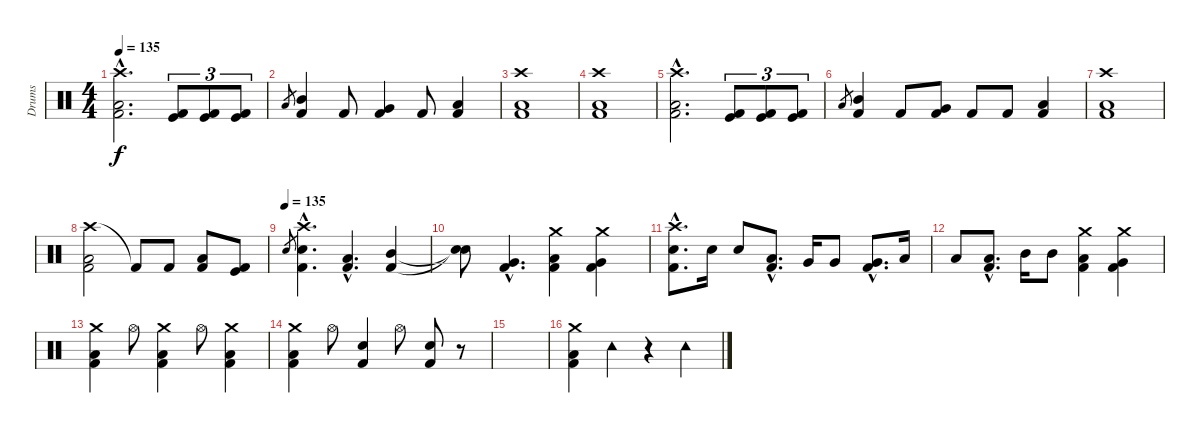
\track ("Drums" "Drums") {instrument percussion}
\staff {score}
\articulation defaults
\ts (4 4)
\tempo 135
\clef neutral
\ks c
("Crash high (hit)"{hac} "Low Floor Tom (hit)"{hac} "Kick (hit) 2"{hac}).2{d dy f volume 16} ("Kick (hit)" "Kick (hit) 2").8{tu (3 2)} ("Kick (hit)" "Kick (hit) 2").8{tu (3 2)} ("Kick (hit)" "Kick (hit) 2").8{tu (3 2)} |
"Low Tom (hit)".8{gr} ("Mid Tom (hit)" "Kick (hit) 2").4 "Kick (hit) 2".8 ("Very Low Tom (hit)" "Kick (hit) 2").4 "Kick (hit) 2".8 ("Low Floor Tom (hit)" "Kick (hit) 2").4 |
("Crash high (hit)" "Low Floor Tom (hit)" "Kick (hit) 2").1 |
("Crash high (hit)" "Low Floor Tom (hit)" "Kick (hit) 2").1 |
("Crash high (hit)"{hac} "Low Floor Tom (hit)"{hac} "Kick (hit) 2"{hac}).2{d volume 16} ("Kick (hit)" "Kick (hit) 2").8{tu (3 2)} ("Kick (hit)" "Kick (hit) 2").8{tu (3 2)} ("Kick (hit)" "Kick (hit) 2").8{tu (3 2)} |
"Low Tom (hit)".8{gr} ("Mid Tom (hit)" "Kick (hit) 2").4 "Kick (hit) 2".8 ("Very Low Tom (hit)" "Kick (hit) 2").8 "Kick (hit) 2".8 "Kick (hit) 2".8 ("Low Floor Tom (hit)" "Kick (hit) 2").4 |
("Crash high (hit)" "Low Floor Tom (hit)" "Kick (hit) 2").1 |
("Crash high (hit)" "Low Floor Tom (hit)" "Kick (hit) 2").2 "Kick (hit) 2"{t}.8 "Kick (hit) 2".8 ("Low Floor Tom (hit)" "Kick (hit) 2").8 ("Kick (hit)" "Kick (hit) 2").8 |
\tempo (135)
"Snare (hit) 2".8{gr} ("Crash high (hit)"{hac} "Electric Snare (hit)"{hac} "Kick (hit) 2"{hac}).4{d} ("Low Floor Tom (hit)"{hac} "Kick (hit) 2"{hac}).4{d} ("Mid Tom (hit)" "Kick (hit) 2").4 |
("Snare (hit)"{t} "Snare (hit)"{t}).8 ("Very Low Tom (hit)"{hac} "Kick (hit) 2"{hac}).4{d} ("Crash medium (hit)" "Low Floor Tom (hit)" "Kick (hit) 2").4 ("Crash medium (hit)" "Very Low Tom (hit)" "Kick (hit) 2").4 |
("Crash high (hit)"{hac} "Electric Snare (hit)"{hac} "Kick (hit) 2"{hac}).8{d} "Snare (hit) 2".16 "Snare (hit) 2".8 ("Low Floor Tom (hit)"{hac} "Kick (hit) 2"{hac}).8{d} "Very Low Tom (hit)".16 "Very Low Tom (hit)".8 ("Very Low Tom (hit)"{hac} "Kick (hit) 2"{hac}).8{d} "Low Tom (hit)".16 |
"Low Tom (hit)".8 ("Low Tom (hit)"{hac} "Kick (hit) 2"{hac}).8{d} "Mid Tom (hit)".16 "Mid Tom (hit)".8 ("Crash medium (hit)" "Low Floor Tom (hit)" "Kick (hit) 2").4 ("Crash medium (hit)" "Very Low Tom (hit)" "Kick (hit) 2").4 |
("Crash medium (hit)" "Low Floor Tom (hit)" "Kick (hit) 2").4 "Hi-Hat (open)".8 ("Crash medium (hit)" "Low Floor Tom (hit)" "Kick (hit) 2").4 "Hi-Hat (open)".8 ("Crash medium (hit)" "Low Floor Tom (hit)" "Kick (hit) 2").4 |
("Crash medium (hit)" "Low Floor Tom (hit)" "Kick (hit) 2").4 "Hi-Hat (open)".8 ("Electric Snare (hit)" "Kick (hit) 2").4 "Hi-Hat (open)".8 ("Snare (hit) 2" "Kick (hit) 2").8 r.8 |
|
("Crash medium (hit)" "Low Floor Tom (hit)" "Kick (hit) 2").4 "Tambourine (hit)".4 r.4 "Tambourine (hit)".4
